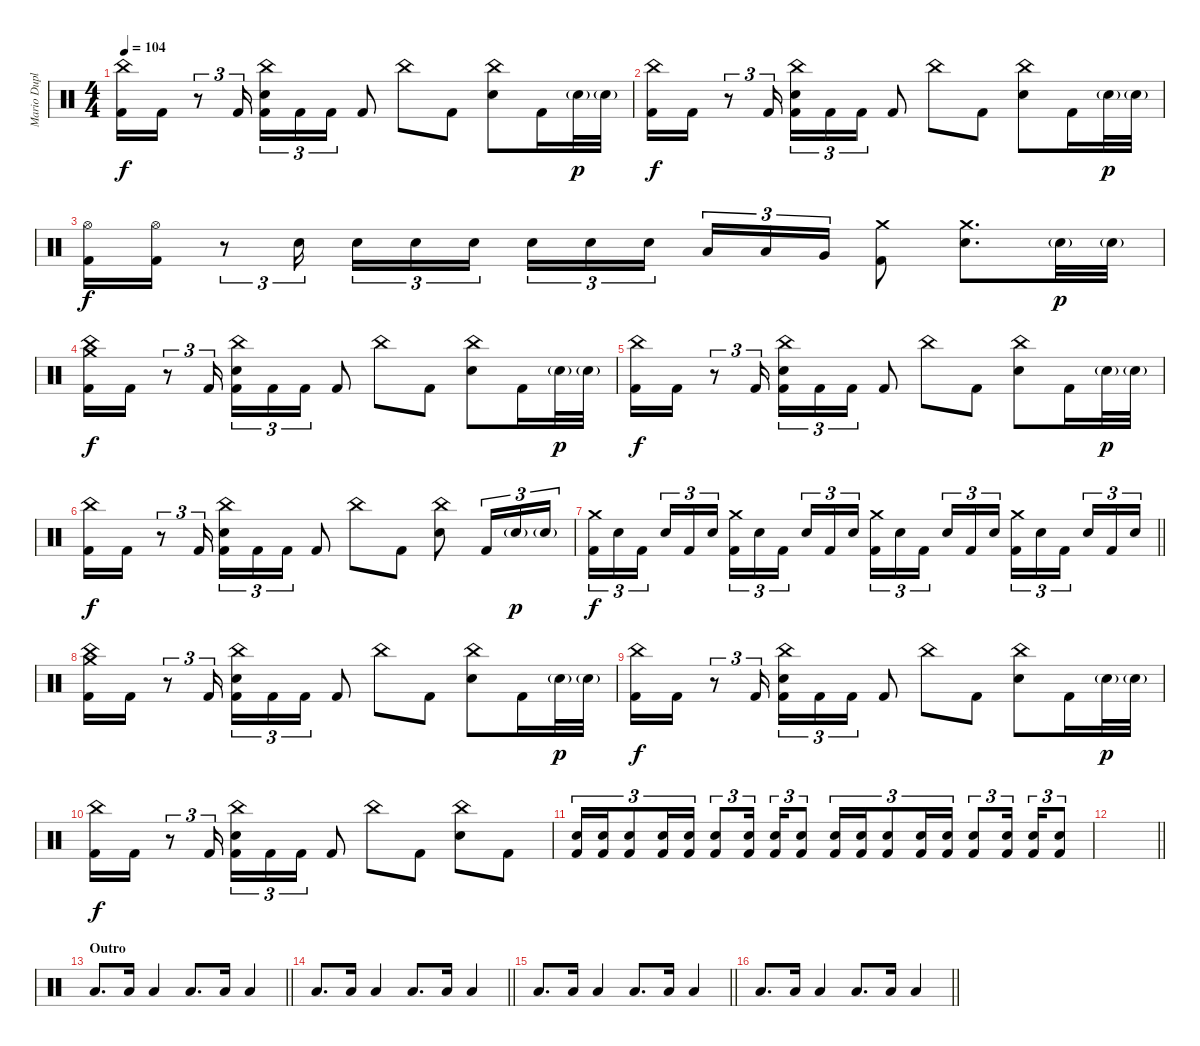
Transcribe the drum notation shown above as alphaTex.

\track ("Mario Duplantier" "Mario Dupl") {instrument percussion}
\staff {score}
\articulation defaults
\ts (4 4)
\tempo 104
\clef neutral
\ks c
("China (hit)" "Kick (hit) 2").16{dy f} "Kick (hit) 2".16 r.8{tu (3 2)} "Kick (hit) 2".16{tu (3 2)} ("China (hit)" "Electric Snare (hit)" "Kick (hit) 2").16{tu (3 2)} "Kick (hit) 2".16{tu (3 2)} "Kick (hit) 2".16{tu (3 2)} "Kick (hit) 2".8 "China (hit)".8 "Kick (hit) 2".8 ("China (hit)" "Electric Snare (hit)").8 "Kick (hit) 2".16 "Electric Snare (hit)"{g}.32{dy p} "Electric Snare (hit)"{g}.32 |
("China (hit)" "Kick (hit) 2").16{dy f} "Kick (hit) 2".16 r.8{tu (3 2)} "Kick (hit) 2".16{tu (3 2)} ("China (hit)" "Electric Snare (hit)" "Kick (hit) 2").16{tu (3 2)} "Kick (hit) 2".16{tu (3 2)} "Kick (hit) 2".16{tu (3 2)} "Kick (hit) 2".8 "China (hit)".8 "Kick (hit) 2".8 ("China (hit)" "Electric Snare (hit)").8 "Kick (hit) 2".16 "Electric Snare (hit)"{g}.32{dy p} "Electric Snare (hit)"{g}.32 |
("Hi-Hat (open)" "Kick (hit) 2").16{dy f} ("Hi-Hat (open)" "Kick (hit) 2").16 r.8{tu (3 2)} "Electric Snare (hit)".16{tu (3 2)} "Electric Snare (hit)".16{tu (3 2)} "Electric Snare (hit)".16{tu (3 2)} "Electric Snare (hit)".16{tu (3 2) beam splitsecondary} "Electric Snare (hit)".16{tu (3 2)} "Electric Snare (hit)".16{tu (3 2)} "Electric Snare (hit)".16{tu (3 2)} "Low Tom (hit)".16{tu (3 2)} "Low Tom (hit)".16{tu (3 2)} "Very Low Tom (hit)".16{tu (3 2)} ("Crash medium (hit)" "Kick (hit) 2").8 ("Crash medium (hit)" "Electric Snare (hit)").8{d} "Electric Snare (hit)"{g}.32{dy p} "Electric Snare (hit)"{g}.32 |
("China (hit)" "Crash medium (hit)" "Kick (hit) 2").16{dy f} "Kick (hit) 2".16 r.8{tu (3 2)} "Kick (hit) 2".16{tu (3 2)} ("China (hit)" "Electric Snare (hit)" "Kick (hit) 2").16{tu (3 2)} "Kick (hit) 2".16{tu (3 2)} "Kick (hit) 2".16{tu (3 2)} "Kick (hit) 2".8 "China (hit)".8 "Kick (hit) 2".8 ("China (hit)" "Electric Snare (hit)").8 "Kick (hit) 2".16 "Electric Snare (hit)"{g}.32{dy p} "Electric Snare (hit)"{g}.32 |
("China (hit)" "Kick (hit) 2").16{dy f} "Kick (hit) 2".16 r.8{tu (3 2)} "Kick (hit) 2".16{tu (3 2)} ("China (hit)" "Electric Snare (hit)" "Kick (hit) 2").16{tu (3 2)} "Kick (hit) 2".16{tu (3 2)} "Kick (hit) 2".16{tu (3 2)} "Kick (hit) 2".8 "China (hit)".8 "Kick (hit) 2".8 ("China (hit)" "Electric Snare (hit)").8 "Kick (hit) 2".16 "Electric Snare (hit)"{g}.32{dy p} "Electric Snare (hit)"{g}.32 |
("China (hit)" "Kick (hit) 2").16{dy f} "Kick (hit) 2".16 r.8{tu (3 2)} "Kick (hit) 2".16{tu (3 2)} ("China (hit)" "Electric Snare (hit)" "Kick (hit) 2").16{tu (3 2)} "Kick (hit) 2".16{tu (3 2)} "Kick (hit) 2".16{tu (3 2)} "Kick (hit) 2".8 "China (hit)".8 "Kick (hit) 2".8 ("China (hit)" "Electric Snare (hit)").8 "Kick (hit) 2".16{tu (3 2)} "Electric Snare (hit)"{g}.16{tu (3 2) dy p} "Electric Snare (hit)"{g}.16{tu (3 2)} |
\barLineRight lightlight
("Crash medium (hit)" "Kick (hit) 2").16{tu (3 2) dy f} "Electric Snare (hit)".16{tu (3 2)} "Kick (hit) 2".16{tu (3 2) beam splitsecondary} "Electric Snare (hit)".16{tu (3 2)} "Kick (hit) 2".16{tu (3 2)} "Electric Snare (hit)".16{tu (3 2)} ("Crash medium (hit)" "Kick (hit) 2").16{tu (3 2)} "Electric Snare (hit)".16{tu (3 2)} "Kick (hit) 2".16{tu (3 2) beam splitsecondary} "Electric Snare (hit)".16{tu (3 2)} "Kick (hit) 2".16{tu (3 2)} "Electric Snare (hit)".16{tu (3 2)} ("Crash medium (hit)" "Kick (hit) 2").16{tu (3 2)} "Electric Snare (hit)".16{tu (3 2)} "Kick (hit) 2".16{tu (3 2) beam splitsecondary} "Electric Snare (hit)".16{tu (3 2)} "Kick (hit) 2".16{tu (3 2)} "Electric Snare (hit)".16{tu (3 2)} ("Crash medium (hit)" "Kick (hit) 2").16{tu (3 2)} "Electric Snare (hit)".16{tu (3 2)} "Kick (hit) 2".16{tu (3 2) beam splitsecondary} "Electric Snare (hit)".16{tu (3 2)} "Kick (hit) 2".16{tu (3 2)} "Electric Snare (hit)".16{tu (3 2)} |
("China (hit)" "Crash medium (hit)" "Kick (hit) 2").16 "Kick (hit) 2".16 r.8{tu (3 2)} "Kick (hit) 2".16{tu (3 2)} ("China (hit)" "Electric Snare (hit)" "Kick (hit) 2").16{tu (3 2)} "Kick (hit) 2".16{tu (3 2)} "Kick (hit) 2".16{tu (3 2)} "Kick (hit) 2".8 "China (hit)".8 "Kick (hit) 2".8 ("China (hit)" "Electric Snare (hit)").8 "Kick (hit) 2".16 "Electric Snare (hit)"{g}.32{dy p} "Electric Snare (hit)"{g}.32 |
("China (hit)" "Kick (hit) 2").16{dy f} "Kick (hit) 2".16 r.8{tu (3 2)} "Kick (hit) 2".16{tu (3 2)} ("China (hit)" "Electric Snare (hit)" "Kick (hit) 2").16{tu (3 2)} "Kick (hit) 2".16{tu (3 2)} "Kick (hit) 2".16{tu (3 2)} "Kick (hit) 2".8 "China (hit)".8 "Kick (hit) 2".8 ("China (hit)" "Electric Snare (hit)").8 "Kick (hit) 2".16 "Electric Snare (hit)"{g}.32{dy p} "Electric Snare (hit)"{g}.32 |
("China (hit)" "Kick (hit) 2").16{dy f} "Kick (hit) 2".16 r.8{tu (3 2)} "Kick (hit) 2".16{tu (3 2)} ("China (hit)" "Electric Snare (hit)" "Kick (hit) 2").16{tu (3 2)} "Kick (hit) 2".16{tu (3 2)} "Kick (hit) 2".16{tu (3 2)} "Kick (hit) 2".8 "China (hit)".8 "Kick (hit) 2".8 ("China (hit)" "Electric Snare (hit)").8 "Kick (hit) 2".8 |
("Electric Snare (hit)" "Kick (hit) 2").16{tu (3 2)} ("Electric Snare (hit)" "Kick (hit) 2").16{tu (3 2)} ("Electric Snare (hit)" "Kick (hit) 2").8{tu (3 2)} ("Electric Snare (hit)" "Kick (hit) 2").16{tu (3 2)} ("Electric Snare (hit)" "Kick (hit) 2").16{tu (3 2)} ("Electric Snare (hit)" "Kick (hit) 2").8{tu (3 2)} ("Electric Snare (hit)" "Kick (hit) 2").16{tu (3 2) beam splitsecondary} ("Electric Snare (hit)" "Kick (hit) 2").16{tu (3 2)} ("Electric Snare (hit)" "Kick (hit) 2").8{tu (3 2)} ("Electric Snare (hit)" "Kick (hit) 2").16{tu (3 2)} ("Electric Snare (hit)" "Kick (hit) 2").16{tu (3 2)} ("Electric Snare (hit)" "Kick (hit) 2").8{tu (3 2)} ("Electric Snare (hit)" "Kick (hit) 2").16{tu (3 2)} ("Electric Snare (hit)" "Kick (hit) 2").16{tu (3 2)} ("Electric Snare (hit)" "Kick (hit) 2").8{tu (3 2)} ("Electric Snare (hit)" "Kick (hit) 2").16{tu (3 2) beam splitsecondary} ("Electric Snare (hit)" "Kick (hit) 2").16{tu (3 2)} ("Electric Snare (hit)" "Kick (hit) 2").8{tu (3 2)} |
\barLineRight lightlight
|
\section ("" "Outro")
\barLineRight lightlight "Low Floor Tom (hit)".8{d volume 9} "Low Floor Tom (hit)".16 "Low Floor Tom (hit)".4 "Low Floor Tom (hit)".8{d} "Low Floor Tom (hit)".16 "Low Floor Tom (hit)".4
|
\barLineRight lightlight "Low Floor Tom (hit)".8{d} "Low Floor Tom (hit)".16 "Low Floor Tom (hit)".4 "Low Floor Tom (hit)".8{d} "Low Floor Tom (hit)".16 "Low Floor Tom (hit)".4
|
\barLineRight lightlight "Low Floor Tom (hit)".8{d} "Low Floor Tom (hit)".16 "Low Floor Tom (hit)".4 "Low Floor Tom (hit)".8{d} "Low Floor Tom (hit)".16 "Low Floor Tom (hit)".4
|
\barLineRight lightlight "Low Floor Tom (hit)".8{d} "Low Floor Tom (hit)".16 "Low Floor Tom (hit)".4 "Low Floor Tom (hit)".8{d} "Low Floor Tom (hit)".16 "Low Floor Tom (hit)".4
